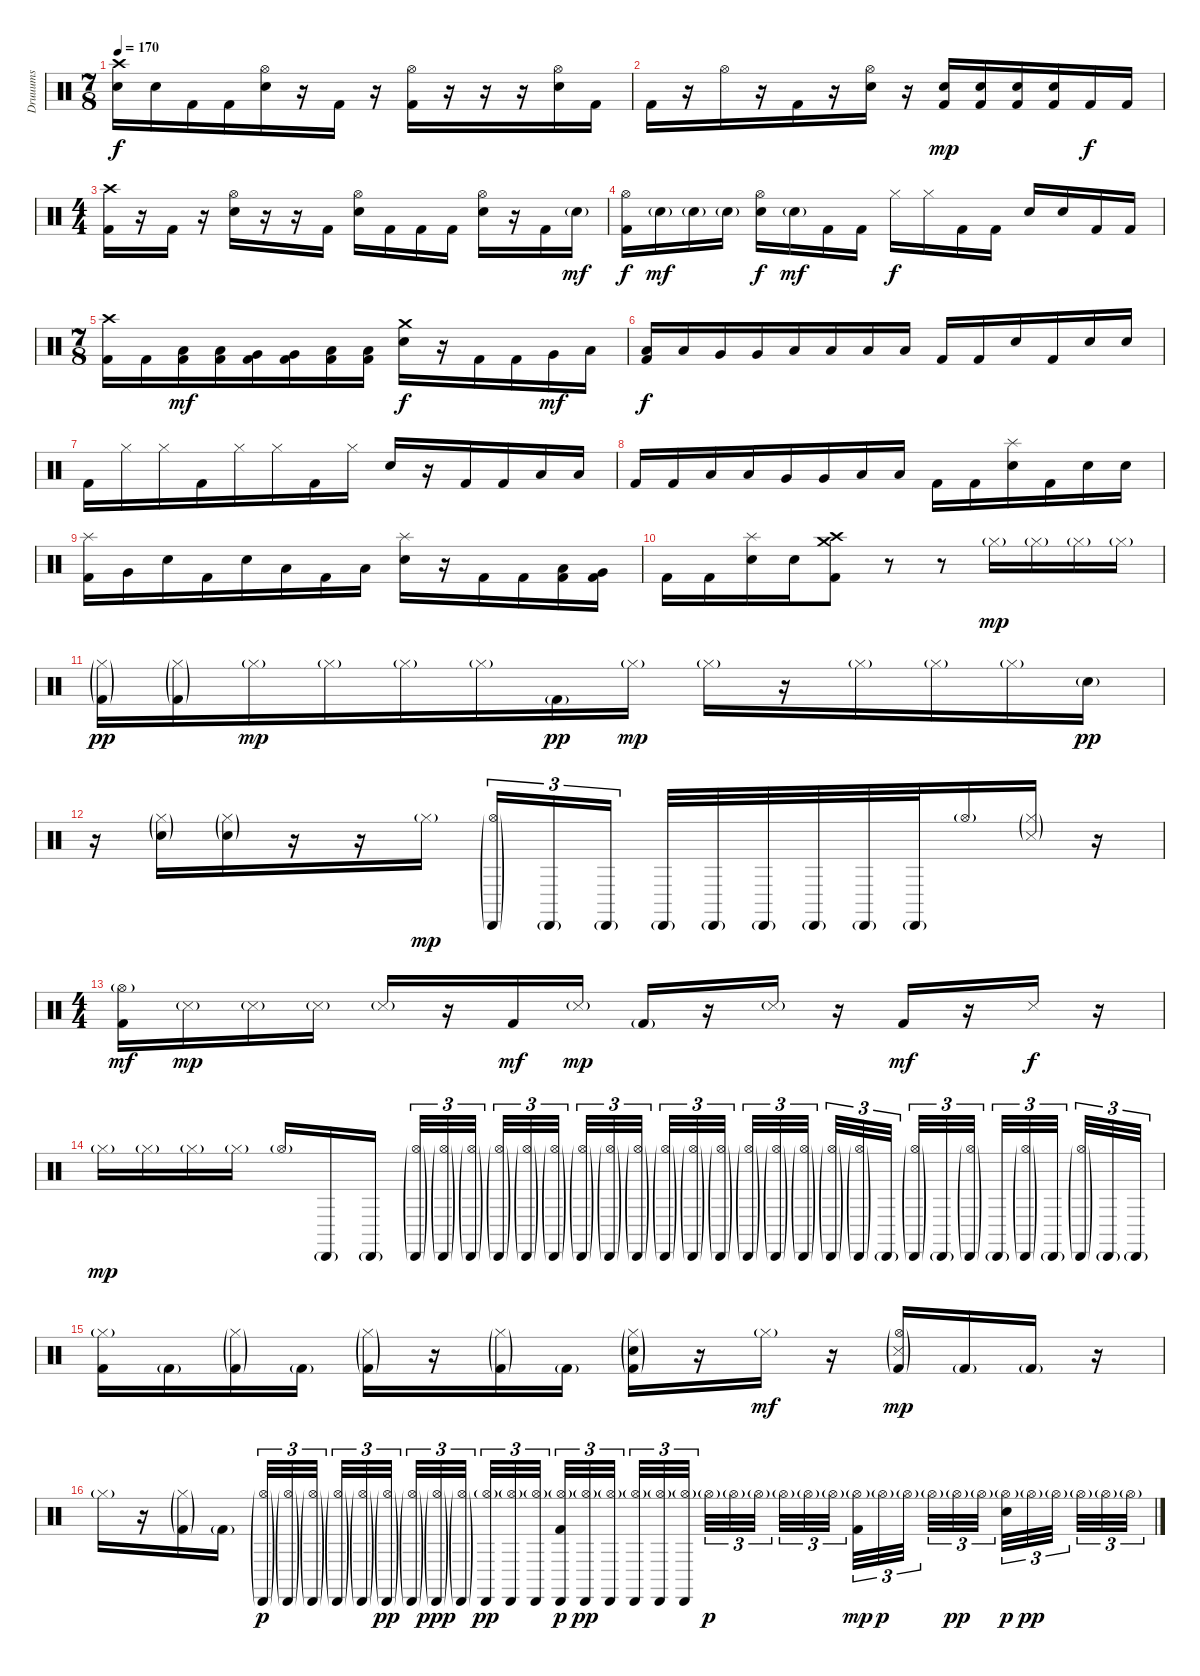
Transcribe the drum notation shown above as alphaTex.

\track ("Druuums" "Druuums") {instrument percussion}
\staff {score}
\articulation defaults
\ts (7 8)
\tempo 170
\clef neutral
\ks c
("Crash high (hit)" "Electric Snare (hit)").16{dy f} "Electric Snare (hit)".16 "Kick (hit) 2".16 "Kick (hit) 2".16 ("Hi-Hat (open)" "Electric Snare (hit)").16 r.16 "Kick (hit) 2".16 r.16 ("Hi-Hat (open)" "Kick (hit) 2").16 r.16 r.16 r.16 ("Hi-Hat (open)" "Electric Snare (hit)").16 "Kick (hit) 2".16 |
"Kick (hit) 2".16 r.16 "Hi-Hat (open)".16 r.16 "Kick (hit) 2".16 r.16 ("Hi-Hat (open)" "Electric Snare (hit)").16 r.16 ("Electric Snare (hit)" "Kick (hit) 2").16{dy mp} ("Electric Snare (hit)" "Kick (hit) 2").16 ("Electric Snare (hit)" "Kick (hit) 2").16 ("Electric Snare (hit)" "Kick (hit) 2").16 "Kick (hit) 2".16{dy f} "Kick (hit) 2".16 |
\ts (4 4)
("Crash high (hit)" "Kick (hit) 2").16 r.16 "Kick (hit) 2".16 r.16 ("Hi-Hat (open)" "Electric Snare (hit)").16 r.16 r.16 "Kick (hit) 2".16 ("Hi-Hat (open)" "Electric Snare (hit)").16 "Kick (hit) 2".16 "Kick (hit) 2".16 "Kick (hit) 2".16 ("Hi-Hat (open)" "Electric Snare (hit)").16 r.16 "Kick (hit) 2".16 "Electric Snare (hit)"{g}.16{dy mf} |
("Hi-Hat (open)" "Kick (hit) 2").16{dy f} "Electric Snare (hit)"{g}.16{dy mf} "Electric Snare (hit)"{g}.16 "Electric Snare (hit)"{g}.16 ("Hi-Hat (open)" "Electric Snare (hit)").16{dy f} "Electric Snare (hit)"{g}.16{dy mf} "Kick (hit) 2".16 "Kick (hit) 2".16 "Hi-Hat (closed)".16{dy f} "Hi-Hat (closed)".16 "Kick (hit) 2".16 "Kick (hit) 2".16 "Electric Snare (hit)".16 "Electric Snare (hit)".16 "Kick (hit) 2".16 "Kick (hit) 2".16 |
\ts (7 8)
("Crash high (hit)" "Kick (hit) 2").16 "Kick (hit) 2".16 ("Low Tom (hit)" "Kick (hit) 2").16{dy mf} ("Low Tom (hit)" "Kick (hit) 2").16 ("Very Low Tom (hit)" "Kick (hit) 2").16 ("Very Low Tom (hit)" "Kick (hit) 2").16 ("Low Floor Tom (hit)" "Kick (hit) 2").16 ("Low Floor Tom (hit)" "Kick (hit) 2").16 ("Crash medium (hit)" "Electric Snare (hit)").16{dy f} r.16 "Kick (hit) 2".16 "Kick (hit) 2".16 "Very Low Tom (hit)".16{dy mf} "Low Floor Tom (hit)".16 |
("Low Tom (hit)" "Kick (hit) 2").16{dy f} "Low Tom (hit)".16 "Very Low Tom (hit)".16 "Very Low Tom (hit)".16 "Low Tom (hit)".16 "Low Tom (hit)".16 "Low Floor Tom (hit)".16 "Low Floor Tom (hit)".16 "Kick (hit) 2".16 "Kick (hit) 2".16 "Electric Snare (hit)".16 "Kick (hit) 2".16 "Electric Snare (hit)".16 "Electric Snare (hit)".16 |
"Kick (hit) 2".16 "Hi-Hat (closed)".16 "Hi-Hat (closed)".16 "Kick (hit) 2".16 "Hi-Hat (closed)".16 "Hi-Hat (closed)".16 "Kick (hit) 2".16 "Hi-Hat (closed)".16 "Electric Snare (hit)".16 r.16 "Kick (hit) 2".16 "Kick (hit) 2".16 "Low Tom (hit)".16 "Low Tom (hit)".16 |
"Kick (hit) 2".16 "Kick (hit) 2".16 "Low Tom (hit)".16 "Low Tom (hit)".16 "Very Low Tom (hit)".16 "Very Low Tom (hit)".16 "Low Floor Tom (hit)".16 "Low Floor Tom (hit)".16 "Kick (hit) 2".16 "Kick (hit) 2".16 ("Splash (hit)" "Electric Snare (hit)").16 "Kick (hit) 2".16 "Electric Snare (hit)".16 "Electric Snare (hit)".16 |
("Splash (hit)" "Kick (hit) 2").16 "Very Low Tom (hit)".16 "Electric Snare (hit)".16 "Kick (hit) 2".16 "Electric Snare (hit)".16 "Low Floor Tom (hit)".16 "Kick (hit) 2".16 "Low Tom (hit)".16 ("Splash (hit)" "Electric Snare (hit)").16 r.16 "Kick (hit) 2".16 "Kick (hit) 2".16 ("Low Tom (hit)" "Kick (hit) 2").16 ("Very Low Tom (hit)" "Kick (hit) 2").16 |
"Kick (hit) 2".16 "Kick (hit) 2".16 ("Splash (hit)" "Electric Snare (hit)").16 "Electric Snare (hit)".16 ("Crash medium (hit)" "Crash high (hit)" "Kick (hit) 2").8 r.8 r.8 "Hi-Hat (closed)"{g}.16{dy mp} "Hi-Hat (closed)"{g}.16 "Hi-Hat (closed)"{g}.16 "Hi-Hat (closed)"{g}.16 |
("Hi-Hat (closed)"{g} "Kick (hit) 2"{g}).16{dy pp} ("Hi-Hat (closed)"{g} "Kick (hit) 2"{g}).16 "Hi-Hat (closed)"{g}.16{dy mp} "Hi-Hat (closed)"{g}.16 "Hi-Hat (closed)"{g}.16 "Hi-Hat (closed)"{g}.16 "Kick (hit) 2"{g}.16{dy pp} "Hi-Hat (closed)"{g}.16{dy mp} "Hi-Hat (closed)"{g}.16 r.16 "Hi-Hat (closed)"{g}.16 "Hi-Hat (closed)"{g}.16 "Hi-Hat (closed)"{g}.16 "Electric Snare (hit)"{g}.16{dy pp} |
r.16 ("Hi-Hat (closed)"{g} "Electric Snare (hit)"{g}).16 ("Hi-Hat (closed)"{g} "Electric Snare (hit)"{g}).16 r.16 r.16 "Hi-Hat (closed)"{g}.16{dy mp} ("Hi-Hat (open)"{g} "Cabasa (hit)"{g}).16{tu (3 2)} "Cabasa (hit)"{g}.16{tu (3 2)} "Cabasa (hit)"{g}.16{tu (3 2)} "Cabasa (hit)"{g}.32 "Cabasa (hit)"{g}.32 "Cabasa (hit)"{g}.32 "Cabasa (hit)"{g}.32 "Cabasa (hit)"{g}.32 "Cabasa (hit)"{g}.32 "Hi-Hat (open)"{g}.16 ("Hi-Hat (closed)"{g} "Snare (side stick) 3"{g}).16 r.16 |
\ts (4 4)
("Hi-Hat (open)"{g} "Kick (hit) 2").16{dy mf} "Snare (side stick) 3"{g}.16{dy mp} "Snare (side stick) 3"{g}.16 "Snare (side stick) 3"{g}.16 "Snare (side stick) 3"{g}.16 r.16 "Kick (hit) 2".16{dy mf} "Snare (side stick) 3"{g}.16{dy mp} "Kick (hit) 2"{g}.16 r.16 "Snare (side stick) 3"{g}.16 r.16 "Kick (hit) 2".16{dy mf} r.16 "Snare (side stick) 3".16{dy f} r.16 |
"Hi-Hat (closed)"{g}.16{dy mp} "Hi-Hat (closed)"{g}.16 "Hi-Hat (closed)"{g}.16 "Hi-Hat (closed)"{g}.16 "Hi-Hat (open)"{g}.16 "Cabasa (hit)"{g}.16 "Cabasa (hit)"{g}.16{beam splitsecondary} ("Hi-Hat (open)"{g} "Cabasa (hit)"{g}).32{tu (3 2)} ("Hi-Hat (open)"{g} "Cabasa (hit)"{g}).32{tu (3 2)} ("Hi-Hat (open)"{g} "Cabasa (hit)"{g}).32{tu (3 2)} ("Hi-Hat (open)"{g} "Cabasa (hit)"{g}).32{tu (3 2)} ("Hi-Hat (open)"{g} "Cabasa (hit)"{g}).32{tu (3 2)} ("Hi-Hat (open)"{g} "Cabasa (hit)"{g}).32{tu (3 2) beam splitsecondary} ("Hi-Hat (open)"{g} "Cabasa (hit)"{g}).32{tu (3 2)} ("Hi-Hat (open)"{g} "Cabasa (hit)"{g}).32{tu (3 2)} ("Hi-Hat (open)"{g} "Cabasa (hit)"{g}).32{tu (3 2) beam splitsecondary} ("Hi-Hat (open)"{g} "Cabasa (hit)"{g}).32{tu (3 2)} ("Hi-Hat (open)"{g} "Cabasa (hit)"{g}).32{tu (3 2)} ("Hi-Hat (open)"{g} "Cabasa (hit)"{g}).32{tu (3 2) beam splitsecondary} ("Hi-Hat (open)"{g} "Cabasa (hit)"{g}).32{tu (3 2)} ("Hi-Hat (open)"{g} "Cabasa (hit)"{g}).32{tu (3 2)} ("Hi-Hat (open)"{g} "Cabasa (hit)"{g}).32{tu (3 2)} ("Hi-Hat (open)"{g} "Cabasa (hit)"{g}).32{tu (3 2)} ("Hi-Hat (open)"{g} "Cabasa (hit)"{g}).32{tu (3 2)} "Cabasa (hit)"{g}.32{tu (3 2) beam splitsecondary} ("Hi-Hat (open)"{g} "Cabasa (hit)"{g}).32{tu (3 2)} "Cabasa (hit)"{g}.32{tu (3 2)} ("Hi-Hat (open)"{g} "Cabasa (hit)"{g}).32{tu (3 2) beam splitsecondary} "Cabasa (hit)"{g}.32{tu (3 2)} ("Hi-Hat (open)"{g} "Cabasa (hit)"{g}).32{tu (3 2)} "Cabasa (hit)"{g}.32{tu (3 2) beam splitsecondary} ("Hi-Hat (open)"{g} "Cabasa (hit)"{g}).32{tu (3 2)} "Cabasa (hit)"{g}.32{tu (3 2)} "Cabasa (hit)"{g}.32{tu (3 2)} |
("Hi-Hat (closed)"{g} "Kick (hit) 2").16 "Kick (hit) 2"{g}.16 ("Hi-Hat (closed)"{g} "Kick (hit) 2"{g}).16 "Kick (hit) 2"{g}.16 ("Hi-Hat (closed)"{g} "Kick (hit) 2"{g}).16 r.16 ("Hi-Hat (closed)"{g} "Kick (hit) 2"{g}).16 "Kick (hit) 2"{g}.16 ("Hi-Hat (closed)"{g} "Electric Snare (hit)"{g} "Kick (hit) 2"{g}).16 r.16 "Hi-Hat (closed)"{g}.16{dy mf} r.16 ("Hi-Hat (open)"{g} "Snare (side stick) 3"{g} "Kick (hit) 2"{g}).16{dy mp} "Kick (hit) 2"{g}.16 "Kick (hit) 2"{g}.16 r.16 |
"Hi-Hat (closed)"{g}.16 r.16 ("Hi-Hat (closed)"{g} "Kick (hit) 2"{g}).16 "Kick (hit) 2"{g}.16 ("Hi-Hat (open)"{g} "Cabasa (hit)"{g}).32{tu (3 2) dy p} ("Hi-Hat (open)"{g} "Cabasa (hit)"{g}).32{tu (3 2)} ("Hi-Hat (open)"{g} "Cabasa (hit)"{g}).32{tu (3 2) beam splitsecondary} ("Hi-Hat (open)"{g} "Cabasa (hit)"{g}).32{tu (3 2)} ("Hi-Hat (open)"{g} "Cabasa (hit)"{g}).32{tu (3 2)} ("Hi-Hat (open)"{g} "Cabasa (hit)"{g}).32{tu (3 2) dy pp beam splitsecondary} ("Hi-Hat (open)"{g} "Cabasa (hit)"{g}).32{tu (3 2)} ("Hi-Hat (open)"{g} "Cabasa (hit)"{g}).32{tu (3 2) dy ppp} ("Hi-Hat (open)"{g} "Cabasa (hit)"{g}).32{tu (3 2) beam splitsecondary} ("Hi-Hat (open)"{g} "Cabasa (hit)").32{tu (3 2) dy pp} ("Hi-Hat (open)"{g} "Cabasa (hit)").32{tu (3 2)} ("Hi-Hat (open)"{g} "Cabasa (hit)").32{tu (3 2)} ("Hi-Hat (open)"{g} "Cabasa (hit)" "Kick (hit) 2").32{tu (3 2) dy p} ("Hi-Hat (open)"{g} "Cabasa (hit)").32{tu (3 2) dy pp} ("Hi-Hat (open)"{g} "Cabasa (hit)").32{tu (3 2) beam splitsecondary} ("Hi-Hat (open)"{g} "Cabasa (hit)").32{tu (3 2)} ("Hi-Hat (open)"{g} "Cabasa (hit)").32{tu (3 2)} ("Hi-Hat (open)"{g} "Cabasa (hit)").32{tu (3 2) beam splitsecondary} "Hi-Hat (open)"{g}.32{tu (3 2) dy p} "Hi-Hat (open)"{g}.32{tu (3 2)} "Hi-Hat (open)"{g}.32{tu (3 2) beam splitsecondary} "Hi-Hat (open)"{g}.32{tu (3 2)} "Hi-Hat (open)"{g}.32{tu (3 2)} "Hi-Hat (open)"{g}.32{tu (3 2)} ("Hi-Hat (open)"{g} "Kick (hit) 2").32{tu (3 2) dy mp} "Hi-Hat (open)"{g}.32{tu (3 2) dy p} "Hi-Hat (open)"{g}.32{tu (3 2) beam splitsecondary} "Hi-Hat (open)"{g}.32{tu (3 2)} "Hi-Hat (open)"{g}.32{tu (3 2) dy pp} "Hi-Hat (open)"{g}.32{tu (3 2) beam splitsecondary} ("Hi-Hat (open)"{g} "Electric Snare (hit)").32{tu (3 2) dy p} "Hi-Hat (open)"{g}.32{tu (3 2) dy pp} "Hi-Hat (open)"{g}.32{tu (3 2) beam splitsecondary} "Hi-Hat (open)"{g}.32{tu (3 2)} "Hi-Hat (open)"{g}.32{tu (3 2)} "Hi-Hat (open)"{g}.32{tu (3 2)}
